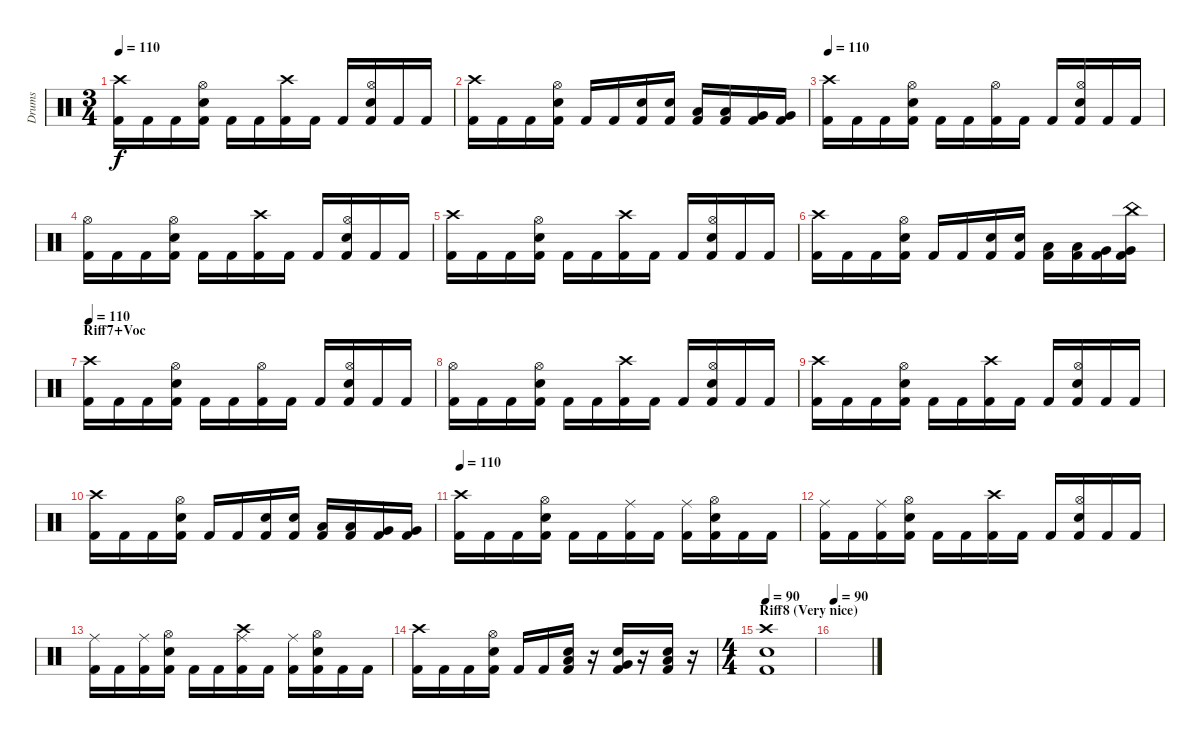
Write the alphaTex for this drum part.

\track ("Drums" "Drums") {instrument percussion}
\staff {score}
\articulation defaults
\ts (3 4)
\tempo 110
\clef neutral
\ks c
("Crash high (hit)" "Kick (hit) 2").16{dy f} "Kick (hit) 2".16 "Kick (hit) 2".16 ("Hi-Hat (open)" "Snare (hit) 2" "Kick (hit) 2").16 "Kick (hit) 2".16 "Kick (hit) 2".16 ("Crash high (hit)" "Kick (hit) 2").16 "Kick (hit) 2".16 "Kick (hit) 2".16 ("Hi-Hat (open)" "Snare (hit) 2" "Kick (hit) 2").16 "Kick (hit) 2".16 "Kick (hit) 2".16 |
("Crash high (hit)" "Kick (hit) 2").16 "Kick (hit) 2".16 "Kick (hit) 2".16 ("Hi-Hat (open)" "Snare (hit) 2" "Kick (hit) 2").16 "Kick (hit) 2".16 "Kick (hit) 2".16 ("Snare (hit) 2" "Kick (hit) 2").16 ("Snare (hit) 2" "Kick (hit) 2").16 ("Low Tom (hit)" "Kick (hit) 2").16 ("Low Tom (hit)" "Kick (hit) 2").16 ("Very Low Tom (hit)" "Kick (hit) 2").16 ("Very Low Tom (hit)" "Kick (hit) 2").16 |
\tempo 110
("Crash high (hit)" "Kick (hit) 2").16 "Kick (hit) 2".16 "Kick (hit) 2".16 ("Hi-Hat (open)" "Snare (hit) 2" "Kick (hit) 2").16 "Kick (hit) 2".16 "Kick (hit) 2".16 ("Hi-Hat (open)" "Kick (hit) 2").16 "Kick (hit) 2".16 "Kick (hit) 2".16 ("Hi-Hat (open)" "Snare (hit) 2" "Kick (hit) 2").16 "Kick (hit) 2".16 "Kick (hit) 2".16 |
("Hi-Hat (open)" "Kick (hit) 2").16 "Kick (hit) 2".16 "Kick (hit) 2".16 ("Hi-Hat (open)" "Snare (hit) 2" "Kick (hit) 2").16 "Kick (hit) 2".16 "Kick (hit) 2".16 ("Crash high (hit)" "Kick (hit) 2").16 "Kick (hit) 2".16 "Kick (hit) 2".16 ("Hi-Hat (open)" "Snare (hit) 2" "Kick (hit) 2").16 "Kick (hit) 2".16 "Kick (hit) 2".16 |
("Crash high (hit)" "Kick (hit) 2").16 "Kick (hit) 2".16 "Kick (hit) 2".16 ("Hi-Hat (open)" "Snare (hit) 2" "Kick (hit) 2").16 "Kick (hit) 2".16 "Kick (hit) 2".16 ("Crash high (hit)" "Kick (hit) 2").16 "Kick (hit) 2".16 "Kick (hit) 2".16 ("Hi-Hat (open)" "Snare (hit) 2" "Kick (hit) 2").16 "Kick (hit) 2".16 "Kick (hit) 2".16 |
("Crash high (hit)" "Kick (hit) 2").16 "Kick (hit) 2".16 "Kick (hit) 2".16 ("Hi-Hat (open)" "Snare (hit) 2" "Kick (hit) 2").16 "Kick (hit) 2".16 "Kick (hit) 2".16 ("Snare (hit) 2" "Kick (hit) 2").16 ("Snare (hit) 2" "Kick (hit) 2").16 ("Low Tom (hit)" "Kick (hit) 2").16 ("Low Tom (hit)" "Kick (hit) 2").16 ("Very Low Tom (hit)" "Kick (hit) 2").16 ("China (hit)" "Very Low Tom (hit)" "Kick (hit) 2").16 |
\section ("" "Riff7+Voc")
\tempo 110
("Crash high (hit)" "Kick (hit) 2").16 "Kick (hit) 2".16 "Kick (hit) 2".16 ("Hi-Hat (open)" "Snare (hit) 2" "Kick (hit) 2").16 "Kick (hit) 2".16 "Kick (hit) 2".16 ("Hi-Hat (open)" "Kick (hit) 2").16 "Kick (hit) 2".16 "Kick (hit) 2".16 ("Hi-Hat (open)" "Snare (hit) 2" "Kick (hit) 2").16 "Kick (hit) 2".16 "Kick (hit) 2".16 |
("Hi-Hat (open)" "Kick (hit) 2").16 "Kick (hit) 2".16 "Kick (hit) 2".16 ("Hi-Hat (open)" "Snare (hit) 2" "Kick (hit) 2").16 "Kick (hit) 2".16 "Kick (hit) 2".16 ("Crash high (hit)" "Kick (hit) 2").16 "Kick (hit) 2".16 "Kick (hit) 2".16 ("Hi-Hat (open)" "Snare (hit) 2" "Kick (hit) 2").16 "Kick (hit) 2".16 "Kick (hit) 2".16 |
("Crash high (hit)" "Kick (hit) 2").16 "Kick (hit) 2".16 "Kick (hit) 2".16 ("Hi-Hat (open)" "Snare (hit) 2" "Kick (hit) 2").16 "Kick (hit) 2".16 "Kick (hit) 2".16 ("Crash high (hit)" "Kick (hit) 2").16 "Kick (hit) 2".16 "Kick (hit) 2".16 ("Hi-Hat (open)" "Snare (hit) 2" "Kick (hit) 2").16 "Kick (hit) 2".16 "Kick (hit) 2".16 |
("Crash high (hit)" "Kick (hit) 2").16 "Kick (hit) 2".16 "Kick (hit) 2".16 ("Hi-Hat (open)" "Snare (hit) 2" "Kick (hit) 2").16 "Kick (hit) 2".16 "Kick (hit) 2".16 ("Snare (hit) 2" "Kick (hit) 2").16 ("Snare (hit) 2" "Kick (hit) 2").16 ("Low Tom (hit)" "Kick (hit) 2").16 ("Low Tom (hit)" "Kick (hit) 2").16 ("Very Low Tom (hit)" "Kick (hit) 2").16 ("Very Low Tom (hit)" "Kick (hit) 2").16 |
\tempo 110
("Crash high (hit)" "Kick (hit) 2").16 "Kick (hit) 2".16 "Kick (hit) 2".16 ("Hi-Hat (open)" "Snare (hit) 2" "Kick (hit) 2").16 "Kick (hit) 2".16 "Kick (hit) 2".16 ("Ride (middle)" "Kick (hit) 2").16 "Kick (hit) 2".16 ("Ride (middle)" "Kick (hit) 2").16 ("Hi-Hat (open)" "Snare (hit) 2" "Kick (hit) 2").16 "Kick (hit) 2".16 "Kick (hit) 2".16 |
("Ride (middle)" "Kick (hit) 2").16 "Kick (hit) 2".16 ("Ride (middle)" "Kick (hit) 2").16 ("Hi-Hat (open)" "Snare (hit) 2" "Kick (hit) 2").16 "Kick (hit) 2".16 "Kick (hit) 2".16 ("Crash high (hit)" "Kick (hit) 2").16 "Kick (hit) 2".16 "Kick (hit) 2".16 ("Hi-Hat (open)" "Snare (hit) 2" "Kick (hit) 2").16 "Kick (hit) 2".16 "Kick (hit) 2".16 |
("Ride (middle)" "Kick (hit) 2").16 "Kick (hit) 2".16 ("Ride (middle)" "Kick (hit) 2").16 ("Hi-Hat (open)" "Snare (hit) 2" "Kick (hit) 2").16 "Kick (hit) 2".16 "Kick (hit) 2".16 ("Crash high (hit)" "Ride (middle)" "Kick (hit) 2").16 "Kick (hit) 2".16 ("Ride (middle)" "Kick (hit) 2").16 ("Hi-Hat (open)" "Snare (hit) 2" "Kick (hit) 2").16 "Kick (hit) 2".16 "Kick (hit) 2".16 |
("Crash high (hit)" "Kick (hit) 2").16 "Kick (hit) 2".16 "Kick (hit) 2".16 ("Hi-Hat (open)" "Snare (hit) 2" "Kick (hit) 2").16 "Kick (hit) 2".16 "Kick (hit) 2".16 ("Snare (hit) 2" "Kick (hit) 2" "Low Tom (hit)").16 r.16 ("Snare (hit) 2" "Kick (hit) 2" "Very Low Tom (hit)").16 r.16 ("Snare (hit) 2" "Kick (hit) 2" "Low Floor Tom (hit)").16 r.16 |
\ts (4 4)
\section ("" "Riff8 (Very nice)")
\tempo 90
("Crash high (hit)" "Snare (hit) 2" "Kick (hit) 2").1 |
\tempo 90
